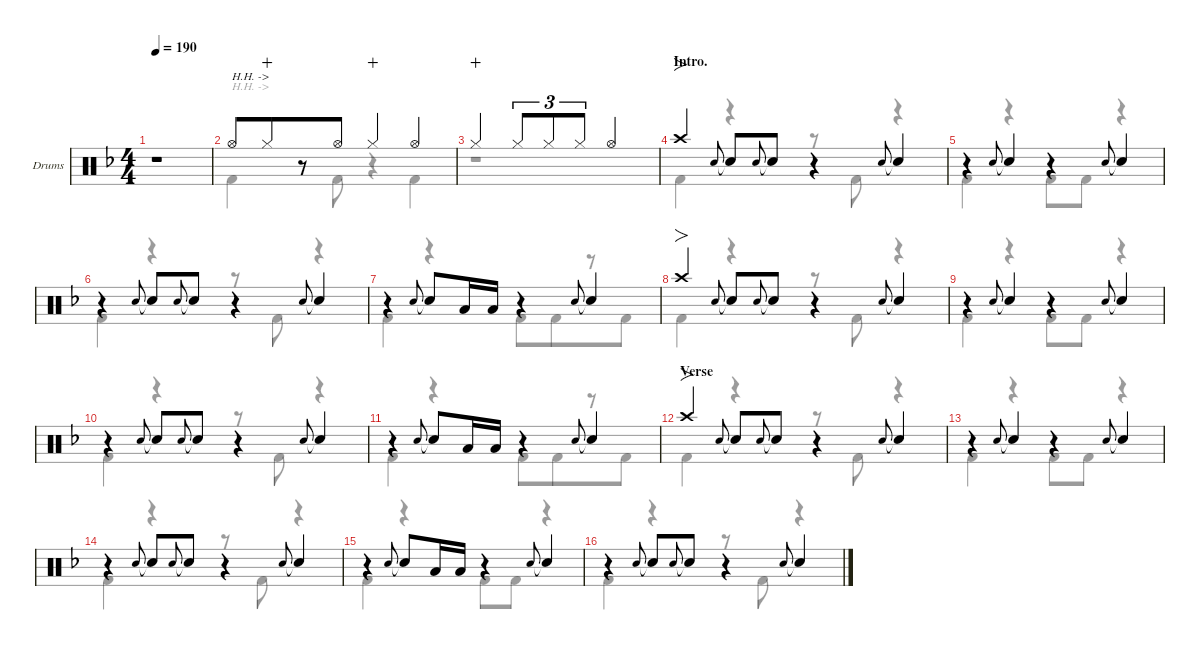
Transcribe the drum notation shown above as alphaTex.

\defaultSystemsLayout 4
\hideDynamics
\bracketExtendMode nobrackets
\firstSystemTrackNameOrientation horizontal
\track ("Drums" "Drums") {defaultSystemsLayout 4 instrument percussion}
\staff {score}
\articulation defaults
\voice
\ts (4 4)
\beaming (8 4 4)
\tempo 190
\clef neutral
\ks f
r.1{dy f} |
"Hi-Hat (open)"{acc forcenatural}.8{txt "H.H. ->"} "Hi-Hat (closed)"{acc forcenatural}.8{dy p wahc} r.8 "Hi-Hat (open)"{acc forcenatural}.8{dy f} "Hi-Hat (closed)"{acc forcenatural}.4{dy p wahc} "Hi-Hat (open)"{acc forcenatural}.4{dy f} |
"Hi-Hat (closed)"{acc forcenatural}.4{dy p wahc} "Hi-Hat (closed)"{acc forcenatural}.8{tu (3 2) dy f} "Hi-Hat (closed)"{acc forcenatural}.8{tu (3 2) dy mf} "Hi-Hat (closed)"{acc forcenatural}.8{tu (3 2)} "Hi-Hat (open)"{acc forcenatural}.2{dy f} |
\section ("" "Intro.")
"Crash high (hit)"{acc forcenatural}.4{fo} "Snare (hit) 2"{acc forcenatural}.8{gr onbeat} "Snare (hit) 2"{t acc forcenatural}.8 "Snare (hit) 2"{acc forcenatural}.8{gr onbeat} "Snare (hit) 2"{t acc forcenatural}.8 r.4 "Snare (hit) 2"{acc forcenatural}.8{gr onbeat} "Snare (hit) 2"{t acc forcenatural}.4 |
r.4 "Snare (hit) 2"{acc forcenatural}.8{gr onbeat} "Snare (hit) 2"{t acc forcenatural}.4 r.4 "Snare (hit) 2"{acc forcenatural}.8{gr onbeat} "Snare (hit) 2"{t acc forcenatural}.4 |
r.4 "Snare (hit) 2"{acc forcenatural}.8{gr onbeat} "Snare (hit) 2"{t acc forcenatural}.8 "Snare (hit) 2"{acc forcenatural}.8{gr onbeat} "Snare (hit) 2"{t acc forcenatural}.8 r.4 "Snare (hit) 2"{acc forcenatural}.8{gr onbeat} "Snare (hit) 2"{t acc forcenatural}.4 |
r.4 "Snare (hit) 2"{acc forcenatural}.8{gr onbeat} "Snare (hit) 2"{t acc forcenatural}.8 "Low Tom (hit)"{acc forcenatural}.16 "Low Tom (hit)"{acc forcenatural}.16 r.4 "Snare (hit) 2"{acc forcenatural}.8{gr onbeat} "Snare (hit) 2"{t acc forcenatural}.4 |
"Crash high (hit)"{acc forcenatural}.4{fo} "Snare (hit) 2"{acc forcenatural}.8{gr onbeat} "Snare (hit) 2"{t acc forcenatural}.8 "Snare (hit) 2"{acc forcenatural}.8{gr onbeat} "Snare (hit) 2"{t acc forcenatural}.8 r.4 "Snare (hit) 2"{acc forcenatural}.8{gr onbeat} "Snare (hit) 2"{t acc forcenatural}.4 |
r.4 "Snare (hit) 2"{acc forcenatural}.8{gr onbeat} "Snare (hit) 2"{t acc forcenatural}.4 r.4 "Snare (hit) 2"{acc forcenatural}.8{gr onbeat} "Snare (hit) 2"{t acc forcenatural}.4 |
r.4 "Snare (hit) 2"{acc forcenatural}.8{gr onbeat} "Snare (hit) 2"{t acc forcenatural}.8 "Snare (hit) 2"{acc forcenatural}.8{gr onbeat} "Snare (hit) 2"{t acc forcenatural}.8 r.4 "Snare (hit) 2"{acc forcenatural}.8{gr onbeat} "Snare (hit) 2"{t acc forcenatural}.4 |
r.4 "Snare (hit) 2"{acc forcenatural}.8{gr onbeat} "Snare (hit) 2"{t acc forcenatural}.8 "Low Tom (hit)"{acc forcenatural}.16 "Low Tom (hit)"{acc forcenatural}.16 r.4 "Snare (hit) 2"{acc forcenatural}.8{gr onbeat} "Snare (hit) 2"{t acc forcenatural}.4 |
\section ("" "Verse")
"Crash high (hit)"{acc forcenatural}.4{fo} "Snare (hit) 2"{acc forcenatural}.8{gr onbeat} "Snare (hit) 2"{t acc forcenatural}.8 "Snare (hit) 2"{acc forcenatural}.8{gr onbeat} "Snare (hit) 2"{t acc forcenatural}.8 r.4 "Snare (hit) 2"{acc forcenatural}.8{gr onbeat} "Snare (hit) 2"{t acc forcenatural}.4 |
r.4 "Snare (hit) 2"{acc forcenatural}.8{gr onbeat} "Snare (hit) 2"{t acc forcenatural}.4 r.4 "Snare (hit) 2"{acc forcenatural}.8{gr onbeat} "Snare (hit) 2"{t acc forcenatural}.4 |
r.4 "Snare (hit) 2"{acc forcenatural}.8{gr onbeat} "Snare (hit) 2"{t acc forcenatural}.8 "Snare (hit) 2"{acc forcenatural}.8{gr onbeat} "Snare (hit) 2"{t acc forcenatural}.8 r.4 "Snare (hit) 2"{acc forcenatural}.8{gr onbeat} "Snare (hit) 2"{t acc forcenatural}.4 |
r.4 "Snare (hit) 2"{acc forcenatural}.8{gr onbeat} "Snare (hit) 2"{t acc forcenatural}.8 "Low Tom (hit)"{acc forcenatural}.16 "Low Tom (hit)"{acc forcenatural}.16 r.4 "Snare (hit) 2"{acc forcenatural}.8{gr onbeat} "Snare (hit) 2"{t acc forcenatural}.4 |
r.4 "Snare (hit) 2"{acc forcenatural}.8{gr onbeat} "Snare (hit) 2"{t acc forcenatural}.8 "Snare (hit) 2"{acc forcenatural}.8{gr onbeat} "Snare (hit) 2"{t acc forcenatural}.8 r.4 "Snare (hit) 2"{acc forcenatural}.8{gr onbeat} "Snare (hit) 2"{t acc forcenatural}.4
\voice
\clef neutral
\ottava regular
\simile none
\ks f
r.1{dy f} |
"Kick (hit) 2"{acc forcenatural}.4{txt "H.H. ->"} r.8 "Kick (hit) 2"{acc forcenatural}.8 r.4 "Kick (hit) 2"{acc forcenatural}.4 |
r.1 |
"Kick (hit) 2"{acc forcenatural}.4 r.4 r.8 "Kick (hit) 2"{acc forcenatural}.8 r.4 |
"Kick (hit) 2"{acc forcenatural}.4 r.4 "Kick (hit) 2"{acc forcenatural}.8 "Kick (hit) 2"{acc forcenatural}.8 r.4 |
"Kick (hit) 2"{acc forcenatural}.4 r.4 r.8 "Kick (hit) 2"{acc forcenatural}.8 r.4 |
"Kick (hit) 2"{acc forcenatural}.4 r.4 "Kick (hit) 2"{acc forcenatural}.8 "Kick (hit) 2"{acc forcenatural}.8 r.8 "Kick (hit) 2"{acc forcenatural}.8 |
"Kick (hit) 2"{acc forcenatural}.4 r.4 r.8 "Kick (hit) 2"{acc forcenatural}.8 r.4 |
"Kick (hit) 2"{acc forcenatural}.4 r.4 "Kick (hit) 2"{acc forcenatural}.8 "Kick (hit) 2"{acc forcenatural}.8 r.4 |
"Kick (hit) 2"{acc forcenatural}.4 r.4 r.8 "Kick (hit) 2"{acc forcenatural}.8 r.4 |
"Kick (hit) 2"{acc forcenatural}.4 r.4 "Kick (hit) 2"{acc forcenatural}.8 "Kick (hit) 2"{acc forcenatural}.8 r.8 "Kick (hit) 2"{acc forcenatural}.8 |
"Kick (hit) 2"{acc forcenatural}.4 r.4 r.8 "Kick (hit) 2"{acc forcenatural}.8 r.4 |
"Kick (hit) 2"{acc forcenatural}.4 r.4 "Kick (hit) 2"{acc forcenatural}.8 "Kick (hit) 2"{acc forcenatural}.8 r.4 |
"Kick (hit) 2"{acc forcenatural}.4 r.4 r.8 "Kick (hit) 2"{acc forcenatural}.8 r.4 |
"Kick (hit) 2"{acc forcenatural}.4 r.4 "Kick (hit) 2"{acc forcenatural}.8 "Kick (hit) 2"{acc forcenatural}.8 r.4 |
"Kick (hit) 2"{acc forcenatural}.4 r.4 r.8 "Kick (hit) 2"{acc forcenatural}.8 r.4
